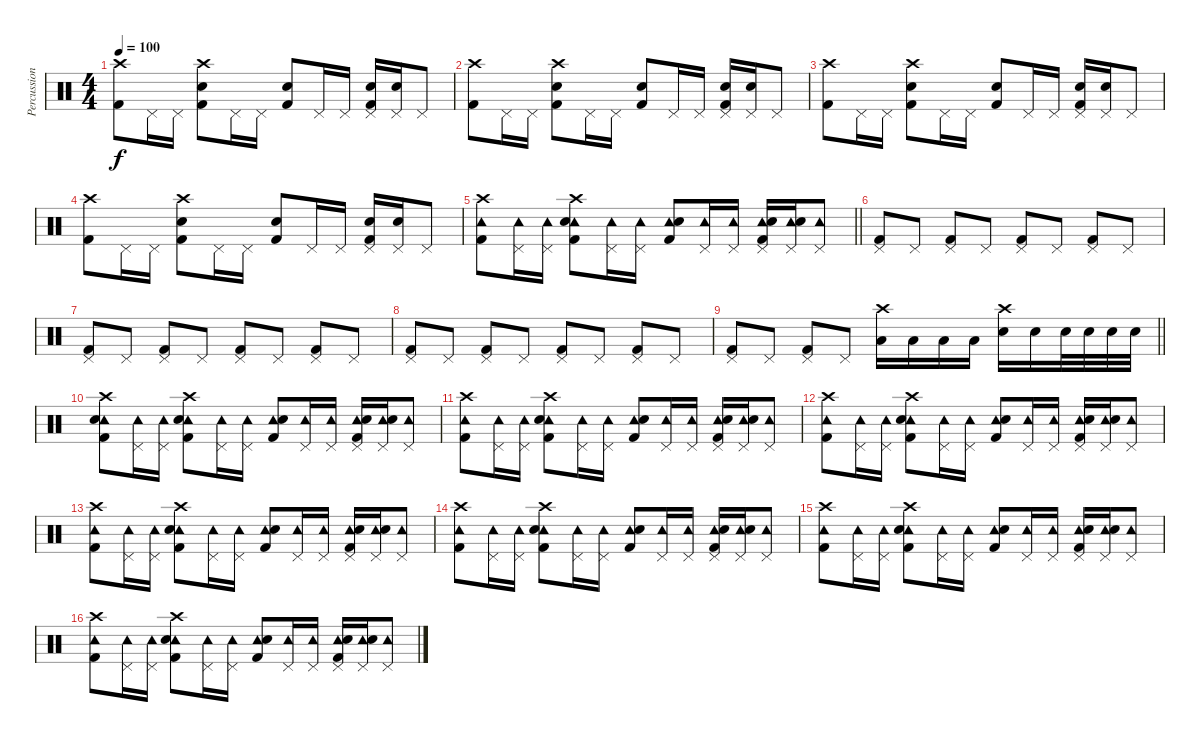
\track ("Percussion" "Percussion") {instrument percussion}
\staff {score}
\articulation defaults
\ts (4 4)
\tempo 100
\clef neutral
\ks c
("Crash high (hit)" "Kick (hit) 2").8{dy f} "Pedal Hi-Hat (hit)".16 "Pedal Hi-Hat (hit)".16 ("Electric Snare (hit)" "Crash high (hit)" "Kick (hit) 2").8 "Pedal Hi-Hat (hit)".16 "Pedal Hi-Hat (hit)".16 ("Electric Snare (hit)" "Kick (hit) 2").8 "Pedal Hi-Hat (hit)".16 "Pedal Hi-Hat (hit)".16 ("Pedal Hi-Hat (hit)" "Electric Snare (hit)" "Kick (hit) 2").16 ("Pedal Hi-Hat (hit)" "Electric Snare (hit)").16 "Pedal Hi-Hat (hit)".8 |
("Crash high (hit)" "Kick (hit) 2").8 "Pedal Hi-Hat (hit)".16 "Pedal Hi-Hat (hit)".16 ("Electric Snare (hit)" "Crash high (hit)" "Kick (hit) 2").8 "Pedal Hi-Hat (hit)".16 "Pedal Hi-Hat (hit)".16 ("Electric Snare (hit)" "Kick (hit) 2").8 "Pedal Hi-Hat (hit)".16 "Pedal Hi-Hat (hit)".16 ("Pedal Hi-Hat (hit)" "Electric Snare (hit)" "Kick (hit) 2").16 ("Pedal Hi-Hat (hit)" "Electric Snare (hit)").16 "Pedal Hi-Hat (hit)".8 |
("Crash high (hit)" "Kick (hit) 2").8 "Pedal Hi-Hat (hit)".16 "Pedal Hi-Hat (hit)".16 ("Electric Snare (hit)" "Crash high (hit)" "Kick (hit) 2").8 "Pedal Hi-Hat (hit)".16 "Pedal Hi-Hat (hit)".16 ("Electric Snare (hit)" "Kick (hit) 2").8 "Pedal Hi-Hat (hit)".16 "Pedal Hi-Hat (hit)".16 ("Pedal Hi-Hat (hit)" "Electric Snare (hit)" "Kick (hit) 2").16 ("Pedal Hi-Hat (hit)" "Electric Snare (hit)").16 "Pedal Hi-Hat (hit)".8 |
("Crash high (hit)" "Kick (hit) 2").8 "Pedal Hi-Hat (hit)".16 "Pedal Hi-Hat (hit)".16 ("Electric Snare (hit)" "Crash high (hit)" "Kick (hit) 2").8 "Pedal Hi-Hat (hit)".16 "Pedal Hi-Hat (hit)".16 ("Electric Snare (hit)" "Kick (hit) 2").8 "Pedal Hi-Hat (hit)".16 "Pedal Hi-Hat (hit)".16 ("Pedal Hi-Hat (hit)" "Electric Snare (hit)" "Kick (hit) 2").16 ("Pedal Hi-Hat (hit)" "Electric Snare (hit)").16 "Pedal Hi-Hat (hit)".8 |
\barLineRight lightlight
("Tambourine (hit)" "Crash high (hit)" "Kick (hit) 2").8 ("Pedal Hi-Hat (hit)" "Tambourine (hit)").16 ("Pedal Hi-Hat (hit)" "Tambourine (hit)").16 ("Tambourine (hit)" "Electric Snare (hit)" "Crash high (hit)" "Kick (hit) 2").8 ("Pedal Hi-Hat (hit)" "Tambourine (hit)").16 ("Pedal Hi-Hat (hit)" "Tambourine (hit)").16 ("Tambourine (hit)" "Electric Snare (hit)" "Kick (hit) 2").8 ("Pedal Hi-Hat (hit)" "Tambourine (hit)").16 ("Pedal Hi-Hat (hit)" "Tambourine (hit)").16 ("Pedal Hi-Hat (hit)" "Tambourine (hit)" "Electric Snare (hit)" "Kick (hit) 2").16 ("Pedal Hi-Hat (hit)" "Tambourine (hit)" "Electric Snare (hit)").16 ("Pedal Hi-Hat (hit)" "Tambourine (hit)").8 |
("Pedal Hi-Hat (hit)" "Kick (hit) 2").8 "Pedal Hi-Hat (hit)".8 ("Pedal Hi-Hat (hit)" "Kick (hit) 2").8 "Pedal Hi-Hat (hit)".8 ("Pedal Hi-Hat (hit)" "Kick (hit) 2").8 "Pedal Hi-Hat (hit)".8 ("Pedal Hi-Hat (hit)" "Kick (hit) 2").8 "Pedal Hi-Hat (hit)".8 |
("Pedal Hi-Hat (hit)" "Kick (hit) 2").8 "Pedal Hi-Hat (hit)".8 ("Pedal Hi-Hat (hit)" "Kick (hit) 2").8 "Pedal Hi-Hat (hit)".8 ("Pedal Hi-Hat (hit)" "Kick (hit) 2").8 "Pedal Hi-Hat (hit)".8 ("Pedal Hi-Hat (hit)" "Kick (hit) 2").8 "Pedal Hi-Hat (hit)".8 |
("Pedal Hi-Hat (hit)" "Kick (hit) 2").8 "Pedal Hi-Hat (hit)".8 ("Pedal Hi-Hat (hit)" "Kick (hit) 2").8 "Pedal Hi-Hat (hit)".8 ("Pedal Hi-Hat (hit)" "Kick (hit) 2").8 "Pedal Hi-Hat (hit)".8 ("Pedal Hi-Hat (hit)" "Kick (hit) 2").8 "Pedal Hi-Hat (hit)".8 |
\barLineRight lightlight
("Pedal Hi-Hat (hit)" "Kick (hit) 2").8 "Pedal Hi-Hat (hit)".8 ("Pedal Hi-Hat (hit)" "Kick (hit) 2").8 "Pedal Hi-Hat (hit)".8 ("Low Tom (hit)" "Crash high (hit)").16 "Low Tom (hit)".16 "Low Tom (hit)".16 "Low Tom (hit)".16 ("Crash high (hit)" "Electric Snare (hit)").16 "Electric Snare (hit)".16 "Electric Snare (hit)".32 "Electric Snare (hit)".32 "Electric Snare (hit)".32 "Electric Snare (hit)".32 |
("Tambourine (hit)" "Electric Snare (hit)" "Crash high (hit)" "Kick (hit) 2").8 ("Pedal Hi-Hat (hit)" "Tambourine (hit)").16 ("Pedal Hi-Hat (hit)" "Tambourine (hit)").16 ("Tambourine (hit)" "Electric Snare (hit)" "Crash high (hit)" "Kick (hit) 2").8 ("Pedal Hi-Hat (hit)" "Tambourine (hit)").16 ("Pedal Hi-Hat (hit)" "Tambourine (hit)").16 ("Tambourine (hit)" "Electric Snare (hit)" "Kick (hit) 2").8 ("Pedal Hi-Hat (hit)" "Tambourine (hit)").16 ("Pedal Hi-Hat (hit)" "Tambourine (hit)").16 ("Pedal Hi-Hat (hit)" "Tambourine (hit)" "Electric Snare (hit)" "Kick (hit) 2").16 ("Pedal Hi-Hat (hit)" "Tambourine (hit)" "Electric Snare (hit)").16 ("Pedal Hi-Hat (hit)" "Tambourine (hit)").8 |
("Tambourine (hit)" "Crash high (hit)" "Kick (hit) 2").8 ("Pedal Hi-Hat (hit)" "Tambourine (hit)").16 ("Pedal Hi-Hat (hit)" "Tambourine (hit)").16 ("Tambourine (hit)" "Electric Snare (hit)" "Crash high (hit)" "Kick (hit) 2").8 ("Pedal Hi-Hat (hit)" "Tambourine (hit)").16 ("Pedal Hi-Hat (hit)" "Tambourine (hit)").16 ("Tambourine (hit)" "Electric Snare (hit)" "Kick (hit) 2").8 ("Pedal Hi-Hat (hit)" "Tambourine (hit)").16 ("Pedal Hi-Hat (hit)" "Tambourine (hit)").16 ("Pedal Hi-Hat (hit)" "Tambourine (hit)" "Electric Snare (hit)" "Kick (hit) 2").16 ("Pedal Hi-Hat (hit)" "Tambourine (hit)" "Electric Snare (hit)").16 ("Pedal Hi-Hat (hit)" "Tambourine (hit)").8 |
("Tambourine (hit)" "Crash high (hit)" "Kick (hit) 2").8 ("Pedal Hi-Hat (hit)" "Tambourine (hit)").16 ("Pedal Hi-Hat (hit)" "Tambourine (hit)").16 ("Tambourine (hit)" "Electric Snare (hit)" "Crash high (hit)" "Kick (hit) 2").8 ("Pedal Hi-Hat (hit)" "Tambourine (hit)").16 ("Pedal Hi-Hat (hit)" "Tambourine (hit)").16 ("Tambourine (hit)" "Electric Snare (hit)" "Kick (hit) 2").8 ("Pedal Hi-Hat (hit)" "Tambourine (hit)").16 ("Pedal Hi-Hat (hit)" "Tambourine (hit)").16 ("Pedal Hi-Hat (hit)" "Tambourine (hit)" "Electric Snare (hit)" "Kick (hit) 2").16 ("Pedal Hi-Hat (hit)" "Tambourine (hit)" "Electric Snare (hit)").16 ("Pedal Hi-Hat (hit)" "Tambourine (hit)").8 |
("Tambourine (hit)" "Crash high (hit)" "Kick (hit) 2").8 ("Pedal Hi-Hat (hit)" "Tambourine (hit)").16 ("Pedal Hi-Hat (hit)" "Tambourine (hit)").16 ("Tambourine (hit)" "Electric Snare (hit)" "Crash high (hit)" "Kick (hit) 2").8 ("Pedal Hi-Hat (hit)" "Tambourine (hit)").16 ("Pedal Hi-Hat (hit)" "Tambourine (hit)").16 ("Tambourine (hit)" "Electric Snare (hit)" "Kick (hit) 2").8 ("Pedal Hi-Hat (hit)" "Tambourine (hit)").16 ("Pedal Hi-Hat (hit)" "Tambourine (hit)").16 ("Pedal Hi-Hat (hit)" "Tambourine (hit)" "Electric Snare (hit)" "Kick (hit) 2").16 ("Pedal Hi-Hat (hit)" "Tambourine (hit)" "Electric Snare (hit)").16 ("Pedal Hi-Hat (hit)" "Tambourine (hit)").8 |
("Tambourine (hit)" "Crash high (hit)" "Kick (hit) 2").8 ("Pedal Hi-Hat (hit)" "Tambourine (hit)").16 ("Pedal Hi-Hat (hit)" "Tambourine (hit)").16 ("Tambourine (hit)" "Electric Snare (hit)" "Crash high (hit)" "Kick (hit) 2").8 ("Pedal Hi-Hat (hit)" "Tambourine (hit)").16 ("Pedal Hi-Hat (hit)" "Tambourine (hit)").16 ("Tambourine (hit)" "Electric Snare (hit)" "Kick (hit) 2").8 ("Pedal Hi-Hat (hit)" "Tambourine (hit)").16 ("Pedal Hi-Hat (hit)" "Tambourine (hit)").16 ("Pedal Hi-Hat (hit)" "Tambourine (hit)" "Electric Snare (hit)" "Kick (hit) 2").16 ("Pedal Hi-Hat (hit)" "Tambourine (hit)" "Electric Snare (hit)").16 ("Pedal Hi-Hat (hit)" "Tambourine (hit)").8 |
("Tambourine (hit)" "Crash high (hit)" "Kick (hit) 2").8 ("Pedal Hi-Hat (hit)" "Tambourine (hit)").16 ("Pedal Hi-Hat (hit)" "Tambourine (hit)").16 ("Tambourine (hit)" "Electric Snare (hit)" "Crash high (hit)" "Kick (hit) 2").8 ("Pedal Hi-Hat (hit)" "Tambourine (hit)").16 ("Pedal Hi-Hat (hit)" "Tambourine (hit)").16 ("Tambourine (hit)" "Electric Snare (hit)" "Kick (hit) 2").8 ("Pedal Hi-Hat (hit)" "Tambourine (hit)").16 ("Pedal Hi-Hat (hit)" "Tambourine (hit)").16 ("Pedal Hi-Hat (hit)" "Tambourine (hit)" "Electric Snare (hit)" "Kick (hit) 2").16 ("Pedal Hi-Hat (hit)" "Tambourine (hit)" "Electric Snare (hit)").16 ("Pedal Hi-Hat (hit)" "Tambourine (hit)").8 |
("Tambourine (hit)" "Crash high (hit)" "Kick (hit) 2").8 ("Pedal Hi-Hat (hit)" "Tambourine (hit)").16 ("Pedal Hi-Hat (hit)" "Tambourine (hit)").16 ("Tambourine (hit)" "Electric Snare (hit)" "Crash high (hit)" "Kick (hit) 2").8 ("Pedal Hi-Hat (hit)" "Tambourine (hit)").16 ("Pedal Hi-Hat (hit)" "Tambourine (hit)").16 ("Tambourine (hit)" "Electric Snare (hit)" "Kick (hit) 2").8 ("Pedal Hi-Hat (hit)" "Tambourine (hit)").16 ("Pedal Hi-Hat (hit)" "Tambourine (hit)").16 ("Pedal Hi-Hat (hit)" "Tambourine (hit)" "Electric Snare (hit)" "Kick (hit) 2").16 ("Pedal Hi-Hat (hit)" "Tambourine (hit)" "Electric Snare (hit)").16 ("Pedal Hi-Hat (hit)" "Tambourine (hit)").8
